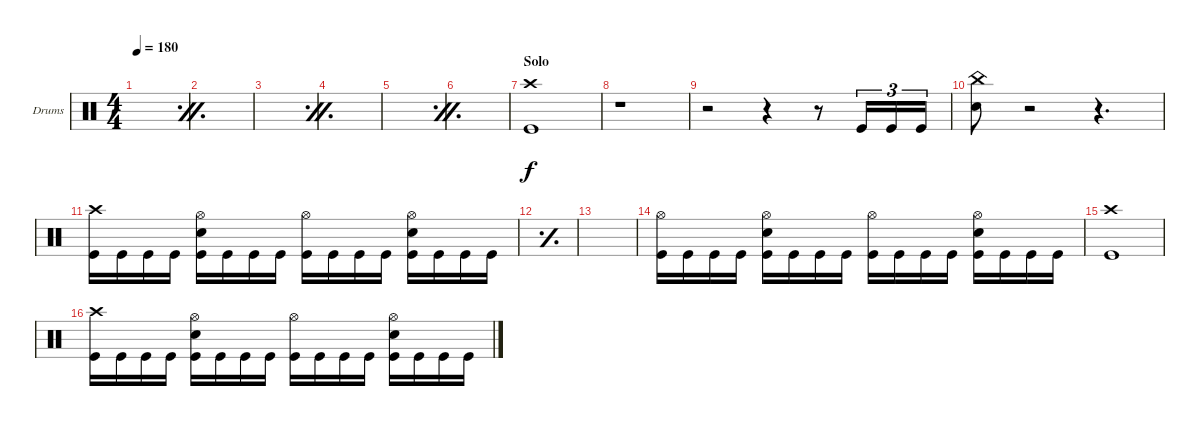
\defaultSystemsLayout 4
\bracketExtendMode groupsimilarinstruments
\firstSystemTrackNameOrientation horizontal
\otherSystemsTrackNameOrientation horizontal
\track ("Drumkit" "Drums") {instrument percussion}
\staff {score}
\articulation defaults
\ts (4 4)
\tempo 180
\clef neutral
\simile firstofdouble
\ks c
|
\simile secondofdouble
|
\simile firstofdouble
|
\simile secondofdouble
|
\simile firstofdouble
|
\simile secondofdouble
|
\section ("" "Solo")
("Kick (hit)" "Crash high (hit)").1 |
r.1 |
r.2 r.4 r.8 "Kick (hit)".16{tu (3 2)} "Kick (hit)".16{tu (3 2)} "Kick (hit)".16{tu (3 2)} |
("Snare (hit) 2" "China (hit)").8 r.2 r.4{d} |
("Kick (hit)" "Crash high (hit)").16 "Kick (hit)".16 "Kick (hit)".16 "Kick (hit)".16 ("Kick (hit)" "Snare (hit) 2" "Hi-Hat (open)").16 "Kick (hit)".16 "Kick (hit)".16 "Kick (hit)".16 ("Kick (hit)" "Hi-Hat (open)").16 "Kick (hit)".16 "Kick (hit)".16 "Kick (hit)".16 ("Kick (hit)" "Snare (hit) 2" "Hi-Hat (open)").16 "Kick (hit)".16 "Kick (hit)".16 "Kick (hit)".16 |
\simile simple
|
|
\simile none
("Kick (hit)" "Hi-Hat (open)").16 "Kick (hit)".16 "Kick (hit)".16 "Kick (hit)".16 ("Kick (hit)" "Snare (hit) 2" "Hi-Hat (open)").16 "Kick (hit)".16 "Kick (hit)".16 "Kick (hit)".16 ("Kick (hit)" "Hi-Hat (open)").16 "Kick (hit)".16 "Kick (hit)".16 "Kick (hit)".16 ("Kick (hit)" "Snare (hit) 2" "Hi-Hat (open)").16 "Kick (hit)".16 "Kick (hit)".16 "Kick (hit)".16 |
("Kick (hit)" "Crash high (hit)").1 |
("Kick (hit)" "Crash high (hit)").16 "Kick (hit)".16 "Kick (hit)".16 "Kick (hit)".16 ("Kick (hit)" "Snare (hit) 2" "Hi-Hat (open)").16 "Kick (hit)".16 "Kick (hit)".16 "Kick (hit)".16 ("Kick (hit)" "Hi-Hat (open)").16 "Kick (hit)".16 "Kick (hit)".16 "Kick (hit)".16 ("Kick (hit)" "Snare (hit) 2" "Hi-Hat (open)").16 "Kick (hit)".16 "Kick (hit)".16 "Kick (hit)".16
